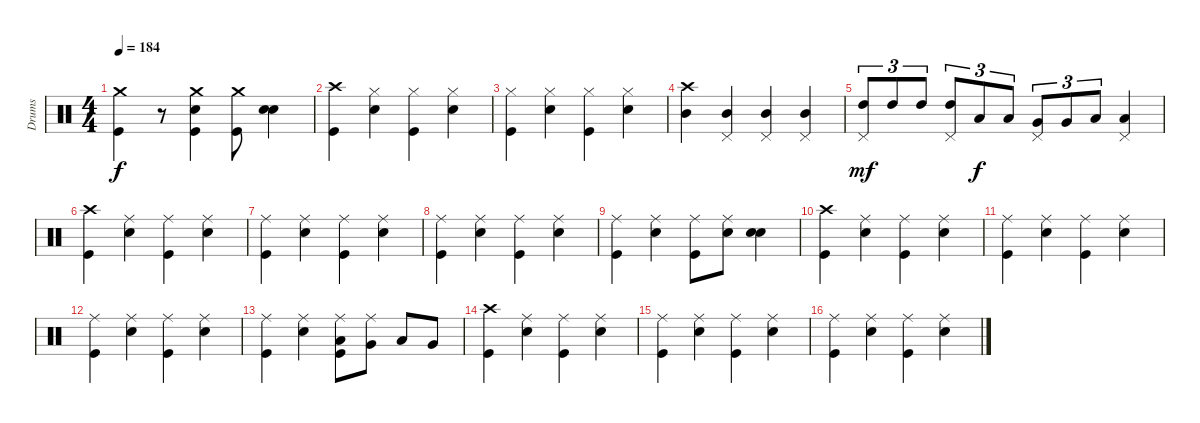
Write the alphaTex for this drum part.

\track ("Drums" "Drums") {instrument percussion}
\staff {score}
\articulation defaults
\ts (4 4)
\tempo 184
\clef neutral
\ks c
("Crash medium (hit)" "Kick (hit)").4{dy f} r.8 ("Crash medium (hit)" "Electric Snare (hit)" "Kick (hit)").4 ("Crash medium (hit)" "Kick (hit)").8 ("Electric Snare (hit)" "Electric Snare (hit)").4 |
("Crash high (hit)" "Kick (hit)").4 ("Hi-Hat (closed)" "Electric Snare (hit)").4 ("Hi-Hat (closed)" "Kick (hit)").4 ("Hi-Hat (closed)" "Electric Snare (hit)").4 |
("Hi-Hat (closed)" "Kick (hit)").4 ("Hi-Hat (closed)" "Electric Snare (hit)").4 ("Hi-Hat (closed)" "Kick (hit)").4 ("Hi-Hat (closed)" "Electric Snare (hit)").4 |
("Crash high (hit)" "Mid Tom (hit)").4 ("Mid Tom (hit)" "Pedal Hi-Hat (hit)").4 ("Mid Tom (hit)" "Pedal Hi-Hat (hit)").4 ("Mid Tom (hit)" "Pedal Hi-Hat (hit)").4 |
("High Tom (hit)" "Pedal Hi-Hat (hit)").8{tu (3 2) dy mf} "High Tom (hit)".8{tu (3 2)} "High Tom (hit)".8{tu (3 2)} ("High Tom (hit)" "Pedal Hi-Hat (hit)").8{tu (3 2)} "Low Tom (hit)".8{tu (3 2) dy f} "Low Tom (hit)".8{tu (3 2)} ("Very Low Tom (hit)" "Pedal Hi-Hat (hit)").8{tu (3 2)} "Very Low Tom (hit)".8{tu (3 2)} "Low Floor Tom (hit)".8{tu (3 2)} ("Low Floor Tom (hit)" "Pedal Hi-Hat (hit)").4 |
("Crash high (hit)" "Kick (hit)").4 ("Ride (middle)" "Electric Snare (hit)").4 ("Ride (middle)" "Kick (hit)").4 ("Ride (middle)" "Electric Snare (hit)").4 |
("Ride (middle)" "Kick (hit)").4 ("Ride (middle)" "Electric Snare (hit)").4 ("Ride (middle)" "Kick (hit)").4 ("Ride (middle)" "Electric Snare (hit)").4 |
("Ride (middle)" "Kick (hit)").4 ("Ride (middle)" "Electric Snare (hit)").4 ("Ride (middle)" "Kick (hit)").4 ("Ride (middle)" "Electric Snare (hit)").4 |
("Ride (middle)" "Kick (hit)").4 ("Ride (middle)" "Electric Snare (hit)").4 ("Ride (middle)" "Kick (hit)").8 ("Ride (middle)" "Electric Snare (hit)").8 ("Electric Snare (hit)" "Electric Snare (hit)").4 |
("Crash high (hit)" "Kick (hit)").4 ("Ride (middle)" "Electric Snare (hit)").4 ("Ride (middle)" "Kick (hit)").4 ("Ride (middle)" "Electric Snare (hit)").4 |
("Ride (middle)" "Kick (hit)").4 ("Ride (middle)" "Electric Snare (hit)").4 ("Ride (middle)" "Kick (hit)").4 ("Ride (middle)" "Electric Snare (hit)").4 |
("Ride (middle)" "Kick (hit)").4 ("Ride (middle)" "Electric Snare (hit)").4 ("Ride (middle)" "Kick (hit)").4 ("Ride (middle)" "Electric Snare (hit)").4 |
("Ride (middle)" "Kick (hit)").4 ("Ride (middle)" "Electric Snare (hit)").4 ("Ride (middle)" "Low Tom (hit)" "Kick (hit)").8 ("Ride (middle)" "Very Low Tom (hit)").8 "Low Tom (hit)".8 "Very Low Tom (hit)".8 |
("Crash high (hit)" "Kick (hit)").4 ("Ride (middle)" "Electric Snare (hit)").4 ("Ride (middle)" "Kick (hit)").4 ("Ride (middle)" "Electric Snare (hit)").4 |
("Ride (middle)" "Kick (hit)").4 ("Ride (middle)" "Electric Snare (hit)").4 ("Ride (middle)" "Kick (hit)").4 ("Ride (middle)" "Electric Snare (hit)").4 |
("Ride (middle)" "Kick (hit)").4 ("Ride (middle)" "Electric Snare (hit)").4 ("Ride (middle)" "Kick (hit)").4 ("Ride (middle)" "Electric Snare (hit)").4
